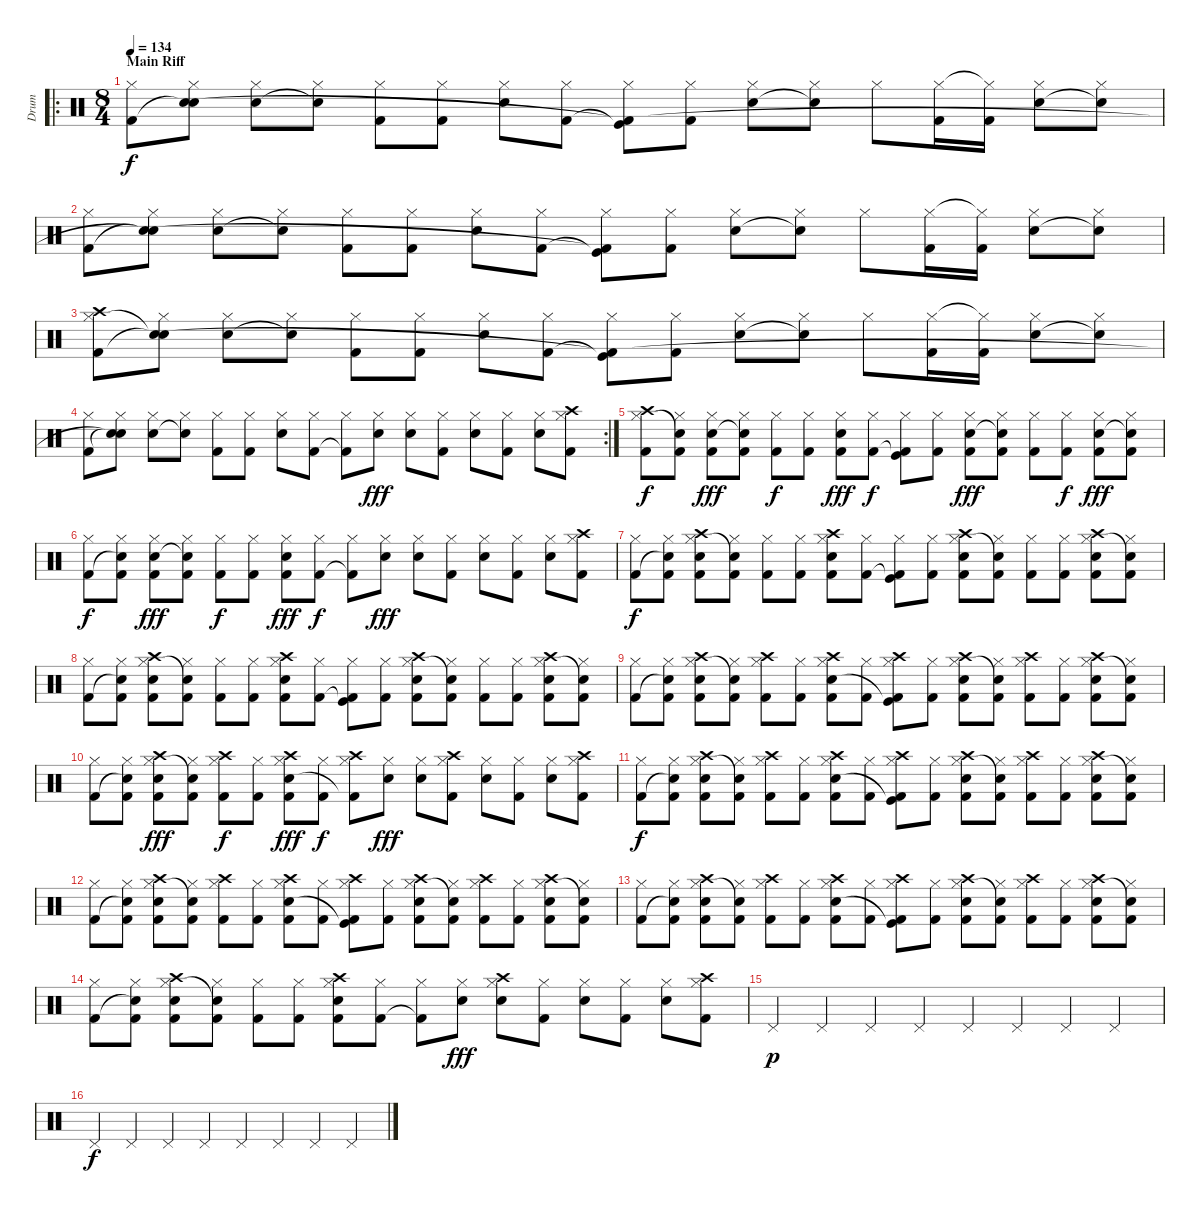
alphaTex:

\track ("Drum" "Drum") {instrument percussion}
\staff {score}
\articulation defaults
\ro
\ts (8 4)
\section ("" "Main Riff")
\tempo 134
\clef neutral
\ks c
("Hi-Hat (closed)" "Kick (hit) 2").8{dy f} ("Hi-Hat (closed)" "Snare (hit)"{t} "Snare (hit)").8 ("Hi-Hat (closed)" "Snare (hit) 2").8 ("Hi-Hat (closed)" "Snare (hit)"{t}).8 ("Hi-Hat (closed)" "Kick (hit) 2").8 ("Hi-Hat (closed)" "Kick (hit) 2").8 ("Hi-Hat (closed)" "Snare (hit) 2").8 ("Hi-Hat (closed)" "Kick (hit) 2").8 ("Hi-Hat (closed)" "Kick (hit)"{t} "Kick (hit) 2"{t}).8 ("Hi-Hat (closed)" "Kick (hit) 2").8 ("Hi-Hat (closed)" "Snare (hit) 2").8 ("Hi-Hat (closed)" "Snare (hit)"{t}).8 "Hi-Hat (closed)".8 ("Hi-Hat (closed)" "Kick (hit) 2").16 ("Hi-Hat (closed)"{t} "Kick (hit) 2").16 ("Hi-Hat (closed)" "Snare (hit) 2").8 ("Hi-Hat (closed)" "Snare (hit)"{t}).8 |
("Hi-Hat (closed)" "Kick (hit) 2").8 ("Hi-Hat (closed)" "Snare (hit)"{t} "Snare (hit)"{t}).8 ("Hi-Hat (closed)" "Snare (hit) 2").8 ("Hi-Hat (closed)" "Snare (hit)"{t}).8 ("Hi-Hat (closed)" "Kick (hit) 2").8 ("Hi-Hat (closed)" "Kick (hit) 2").8 ("Hi-Hat (closed)" "Snare (hit) 2").8 ("Hi-Hat (closed)" "Kick (hit) 2").8 ("Hi-Hat (closed)" "Kick (hit)"{t} "Kick (hit) 2"{t}).8 ("Hi-Hat (closed)" "Kick (hit) 2").8 ("Hi-Hat (closed)" "Snare (hit) 2").8 ("Hi-Hat (closed)" "Snare (hit)"{t}).8 "Hi-Hat (closed)".8 ("Hi-Hat (closed)" "Kick (hit) 2").16 ("Hi-Hat (closed)"{t} "Kick (hit) 2").16 ("Hi-Hat (closed)" "Snare (hit) 2").8 ("Hi-Hat (closed)" "Snare (hit)"{t}).8 |
("Crash high (hit)" "Hi-Hat (closed)" "Kick (hit) 2").8 ("Hi-Hat (closed)" "Snare (hit)"{t} "Snare (hit)"{t}).8 ("Hi-Hat (closed)" "Snare (hit) 2").8 ("Hi-Hat (closed)" "Snare (hit)"{t}).8 ("Hi-Hat (closed)" "Kick (hit) 2").8 ("Hi-Hat (closed)" "Kick (hit) 2").8 ("Hi-Hat (closed)" "Snare (hit) 2").8 ("Hi-Hat (closed)" "Kick (hit) 2").8 ("Hi-Hat (closed)" "Kick (hit)"{t} "Kick (hit) 2"{t}).8 ("Hi-Hat (closed)" "Kick (hit) 2").8 ("Hi-Hat (closed)" "Snare (hit) 2").8 ("Hi-Hat (closed)" "Snare (hit)"{t}).8 "Hi-Hat (closed)".8 ("Hi-Hat (closed)" "Kick (hit) 2").16 ("Hi-Hat (closed)"{t} "Kick (hit) 2").16 ("Hi-Hat (closed)" "Snare (hit) 2").8 ("Hi-Hat (closed)" "Snare (hit)"{t}).8 |
\rc 2
("Hi-Hat (closed)" "Kick (hit) 2").8 ("Hi-Hat (closed)" "Snare (hit)"{t} "Snare (hit)"{t}).8 ("Hi-Hat (closed)" "Snare (hit) 2").8 ("Hi-Hat (closed)" "Snare (hit)"{t}).8 ("Hi-Hat (closed)" "Kick (hit) 2").8 ("Hi-Hat (closed)" "Kick (hit) 2").8 ("Hi-Hat (closed)" "Snare (hit) 2").8 ("Hi-Hat (closed)" "Kick (hit) 2").8 ("Hi-Hat (closed)" "Kick (hit) 2"{t}).8 ("Hi-Hat (closed)" "Snare (hit) 2").8{dy fff} ("Hi-Hat (closed)" "Snare (hit) 2").8 ("Hi-Hat (closed)" "Kick (hit) 2").8 ("Hi-Hat (closed)" "Snare (hit) 2").8 ("Hi-Hat (closed)" "Kick (hit) 2").8 ("Hi-Hat (closed)" "Snare (hit) 2").8 ("Crash high (hit)" "Hi-Hat (closed)" "Kick (hit) 2").8 |
("Crash high (hit)" "Hi-Hat (closed)" "Kick (hit) 2").8{dy f} ("Hi-Hat (closed)" "Snare (hit)"{t} "Kick (hit) 2").8 ("Hi-Hat (closed)" "Snare (hit) 2" "Kick (hit) 2").8{dy fff} ("Hi-Hat (closed)" "Snare (hit)"{t} "Kick (hit) 2").8 ("Hi-Hat (closed)" "Kick (hit) 2").8{dy f} ("Hi-Hat (closed)" "Kick (hit) 2").8 ("Hi-Hat (closed)" "Snare (hit) 2" "Kick (hit) 2").8{dy fff} ("Hi-Hat (closed)" "Kick (hit) 2").8{dy f} ("Hi-Hat (closed)" "Kick (hit)"{t} "Kick (hit) 2").8 ("Hi-Hat (closed)" "Kick (hit) 2").8 ("Hi-Hat (closed)" "Snare (hit) 2" "Kick (hit) 2").8{dy fff} ("Hi-Hat (closed)" "Snare (hit)"{t} "Kick (hit) 2").8 ("Hi-Hat (closed)" "Kick (hit) 2").8 ("Hi-Hat (closed)" "Kick (hit) 2").8{dy f} ("Hi-Hat (closed)" "Snare (hit) 2" "Kick (hit) 2").8{dy fff} ("Hi-Hat (closed)" "Snare (hit)"{t} "Kick (hit) 2").8 |
("Hi-Hat (closed)" "Kick (hit) 2").8{dy f} ("Hi-Hat (closed)" "Snare (hit)"{t} "Kick (hit) 2").8 ("Hi-Hat (closed)" "Snare (hit) 2" "Kick (hit) 2").8{dy fff} ("Hi-Hat (closed)" "Snare (hit)"{t} "Kick (hit) 2").8 ("Hi-Hat (closed)" "Kick (hit) 2").8{dy f} ("Hi-Hat (closed)" "Kick (hit) 2").8 ("Hi-Hat (closed)" "Snare (hit) 2" "Kick (hit) 2").8{dy fff} ("Hi-Hat (closed)" "Kick (hit) 2").8{dy f} ("Hi-Hat (closed)" "Kick (hit) 2"{t}).8 ("Hi-Hat (closed)" "Snare (hit) 2").8{dy fff} ("Hi-Hat (closed)" "Snare (hit) 2").8 ("Hi-Hat (closed)" "Kick (hit) 2").8 ("Hi-Hat (closed)" "Snare (hit) 2").8 ("Hi-Hat (closed)" "Kick (hit) 2").8 ("Hi-Hat (closed)" "Snare (hit) 2").8 ("Crash high (hit)" "Hi-Hat (closed)" "Kick (hit) 2").8 |
("Hi-Hat (closed)" "Kick (hit) 2").8{dy f} ("Hi-Hat (closed)" "Snare (hit)"{t} "Kick (hit) 2").8 ("Crash high (hit)" "Hi-Hat (closed)" "Snare (hit) 2" "Kick (hit) 2").8 ("Hi-Hat (closed)" "Snare (hit)"{t} "Kick (hit) 2").8 ("Hi-Hat (closed)" "Kick (hit) 2").8 ("Hi-Hat (closed)" "Kick (hit) 2").8 ("Crash high (hit)" "Hi-Hat (closed)" "Snare (hit) 2" "Kick (hit) 2").8 ("Hi-Hat (closed)" "Kick (hit) 2").8 ("Hi-Hat (closed)" "Kick (hit)"{t} "Kick (hit) 2").8 ("Hi-Hat (closed)" "Kick (hit) 2").8 ("Crash high (hit)" "Hi-Hat (closed)" "Snare (hit) 2" "Kick (hit) 2").8 ("Hi-Hat (closed)" "Snare (hit)"{t} "Kick (hit) 2").8 ("Hi-Hat (closed)" "Kick (hit) 2").8 ("Hi-Hat (closed)" "Kick (hit) 2").8 ("Crash high (hit)" "Hi-Hat (closed)" "Snare (hit) 2" "Kick (hit) 2").8 ("Hi-Hat (closed)" "Snare (hit)"{t} "Kick (hit) 2").8 |
("Hi-Hat (closed)" "Kick (hit) 2").8 ("Hi-Hat (closed)" "Snare (hit)"{t} "Kick (hit) 2").8 ("Crash high (hit)" "Hi-Hat (closed)" "Snare (hit) 2" "Kick (hit) 2").8 ("Hi-Hat (closed)" "Snare (hit)"{t} "Kick (hit) 2").8 ("Hi-Hat (closed)" "Kick (hit) 2").8 ("Hi-Hat (closed)" "Kick (hit) 2").8 ("Crash high (hit)" "Hi-Hat (closed)" "Snare (hit) 2" "Kick (hit) 2").8 ("Hi-Hat (closed)" "Kick (hit) 2").8 ("Hi-Hat (closed)" "Kick (hit)"{t} "Kick (hit) 2").8 ("Hi-Hat (closed)" "Kick (hit) 2").8 ("Crash high (hit)" "Hi-Hat (closed)" "Snare (hit) 2" "Kick (hit) 2").8 ("Hi-Hat (closed)" "Snare (hit)"{t} "Kick (hit) 2").8 ("Hi-Hat (closed)" "Kick (hit) 2").8 ("Hi-Hat (closed)" "Kick (hit) 2").8 ("Crash high (hit)" "Hi-Hat (closed)" "Snare (hit) 2" "Kick (hit) 2").8 ("Hi-Hat (closed)" "Snare (hit)"{t} "Kick (hit) 2").8 |
("Hi-Hat (closed)" "Kick (hit) 2").8 ("Hi-Hat (closed)" "Snare (hit)"{t} "Kick (hit) 2").8 ("Crash high (hit)" "Hi-Hat (closed)" "Snare (hit) 2" "Kick (hit) 2").8 ("Hi-Hat (closed)" "Snare (hit)"{t} "Kick (hit) 2").8 ("Crash high (hit)" "Hi-Hat (closed)" "Kick (hit) 2").8 ("Hi-Hat (closed)" "Kick (hit) 2").8 ("Crash high (hit)" "Hi-Hat (closed)" "Snare (hit) 2" "Kick (hit) 2").8 ("Hi-Hat (closed)" "Kick (hit) 2").8 ("Crash high (hit)" "Hi-Hat (closed)" "Kick (hit)"{t} "Kick (hit) 2").8 ("Hi-Hat (closed)" "Kick (hit) 2").8 ("Crash high (hit)" "Hi-Hat (closed)" "Snare (hit) 2" "Kick (hit) 2").8 ("Hi-Hat (closed)" "Snare (hit)"{t} "Kick (hit) 2").8 ("Crash high (hit)" "Hi-Hat (closed)" "Kick (hit) 2").8 ("Hi-Hat (closed)" "Kick (hit) 2").8 ("Crash high (hit)" "Hi-Hat (closed)" "Snare (hit) 2" "Kick (hit) 2").8 ("Hi-Hat (closed)" "Snare (hit)"{t} "Kick (hit) 2").8 |
("Hi-Hat (closed)" "Kick (hit) 2").8 ("Hi-Hat (closed)" "Snare (hit)"{t} "Kick (hit) 2").8 ("Crash high (hit)" "Hi-Hat (closed)" "Snare (hit) 2" "Kick (hit) 2").8{dy fff} ("Hi-Hat (closed)" "Snare (hit)"{t} "Kick (hit) 2").8 ("Crash high (hit)" "Hi-Hat (closed)" "Kick (hit) 2").8{dy f} ("Hi-Hat (closed)" "Kick (hit) 2").8 ("Crash high (hit)" "Hi-Hat (closed)" "Snare (hit) 2" "Kick (hit) 2").8{dy fff} ("Hi-Hat (closed)" "Kick (hit) 2").8{dy f} ("Crash high (hit)" "Hi-Hat (closed)" "Kick (hit) 2"{t}).8 ("Hi-Hat (closed)" "Snare (hit) 2").8{dy fff} ("Hi-Hat (closed)" "Snare (hit) 2").8 ("Crash high (hit)" "Hi-Hat (closed)" "Kick (hit) 2").8 ("Hi-Hat (closed)" "Snare (hit) 2").8 ("Hi-Hat (closed)" "Kick (hit) 2").8 ("Hi-Hat (closed)" "Snare (hit) 2").8 ("Crash high (hit)" "Hi-Hat (closed)" "Kick (hit) 2").8 |
("Hi-Hat (closed)" "Kick (hit) 2").8{dy f} ("Hi-Hat (closed)" "Snare (hit)"{t} "Kick (hit) 2").8 ("Crash high (hit)" "Hi-Hat (closed)" "Snare (hit) 2" "Kick (hit) 2").8 ("Hi-Hat (closed)" "Snare (hit)"{t} "Kick (hit) 2").8 ("Crash high (hit)" "Hi-Hat (closed)" "Kick (hit) 2").8 ("Hi-Hat (closed)" "Kick (hit) 2").8 ("Crash high (hit)" "Hi-Hat (closed)" "Snare (hit) 2" "Kick (hit) 2").8 ("Hi-Hat (closed)" "Kick (hit) 2").8 ("Crash high (hit)" "Hi-Hat (closed)" "Kick (hit)"{t} "Kick (hit) 2").8 ("Hi-Hat (closed)" "Kick (hit) 2").8 ("Crash high (hit)" "Hi-Hat (closed)" "Snare (hit) 2" "Kick (hit) 2").8 ("Hi-Hat (closed)" "Snare (hit)"{t} "Kick (hit) 2").8 ("Crash high (hit)" "Hi-Hat (closed)" "Kick (hit) 2").8 ("Hi-Hat (closed)" "Kick (hit) 2").8 ("Crash high (hit)" "Hi-Hat (closed)" "Snare (hit) 2" "Kick (hit) 2").8 ("Hi-Hat (closed)" "Snare (hit)"{t} "Kick (hit) 2").8 |
("Hi-Hat (closed)" "Kick (hit) 2").8 ("Hi-Hat (closed)" "Snare (hit)"{t} "Kick (hit) 2").8 ("Crash high (hit)" "Hi-Hat (closed)" "Snare (hit) 2" "Kick (hit) 2").8 ("Hi-Hat (closed)" "Snare (hit)"{t} "Kick (hit) 2").8 ("Crash high (hit)" "Hi-Hat (closed)" "Kick (hit) 2").8 ("Hi-Hat (closed)" "Kick (hit) 2").8 ("Crash high (hit)" "Hi-Hat (closed)" "Snare (hit) 2" "Kick (hit) 2").8 ("Hi-Hat (closed)" "Kick (hit) 2").8 ("Crash high (hit)" "Hi-Hat (closed)" "Kick (hit)"{t} "Kick (hit) 2").8 ("Hi-Hat (closed)" "Kick (hit) 2").8 ("Crash high (hit)" "Hi-Hat (closed)" "Snare (hit) 2" "Kick (hit) 2").8 ("Hi-Hat (closed)" "Snare (hit)"{t} "Kick (hit) 2").8 ("Crash high (hit)" "Hi-Hat (closed)" "Kick (hit) 2").8 ("Hi-Hat (closed)" "Kick (hit) 2").8 ("Crash high (hit)" "Hi-Hat (closed)" "Snare (hit) 2" "Kick (hit) 2").8 ("Hi-Hat (closed)" "Snare (hit)"{t} "Kick (hit) 2").8 |
("Hi-Hat (closed)" "Kick (hit) 2").8 ("Hi-Hat (closed)" "Snare (hit)"{t} "Kick (hit) 2").8 ("Crash high (hit)" "Hi-Hat (closed)" "Snare (hit) 2" "Kick (hit) 2").8 ("Hi-Hat (closed)" "Snare (hit)"{t} "Kick (hit) 2").8 ("Crash high (hit)" "Hi-Hat (closed)" "Kick (hit) 2").8 ("Hi-Hat (closed)" "Kick (hit) 2").8 ("Crash high (hit)" "Hi-Hat (closed)" "Snare (hit) 2" "Kick (hit) 2").8 ("Hi-Hat (closed)" "Kick (hit) 2").8 ("Crash high (hit)" "Hi-Hat (closed)" "Kick (hit)"{t} "Kick (hit) 2").8 ("Hi-Hat (closed)" "Kick (hit) 2").8 ("Crash high (hit)" "Hi-Hat (closed)" "Snare (hit) 2" "Kick (hit) 2").8 ("Hi-Hat (closed)" "Snare (hit)"{t} "Kick (hit) 2").8 ("Crash high (hit)" "Hi-Hat (closed)" "Kick (hit) 2").8 ("Hi-Hat (closed)" "Kick (hit) 2").8 ("Crash high (hit)" "Hi-Hat (closed)" "Snare (hit) 2" "Kick (hit) 2").8 ("Hi-Hat (closed)" "Snare (hit)"{t} "Kick (hit) 2").8 |
("Hi-Hat (closed)" "Kick (hit) 2").8 ("Hi-Hat (closed)" "Snare (hit)"{t} "Kick (hit) 2").8 ("Crash high (hit)" "Hi-Hat (closed)" "Snare (hit) 2" "Kick (hit) 2").8 ("Hi-Hat (closed)" "Snare (hit)"{t} "Kick (hit) 2").8 ("Hi-Hat (closed)" "Kick (hit) 2").8 ("Hi-Hat (closed)" "Kick (hit) 2").8 ("Crash high (hit)" "Hi-Hat (closed)" "Snare (hit) 2" "Kick (hit) 2").8 ("Hi-Hat (closed)" "Kick (hit) 2").8 ("Hi-Hat (closed)" "Kick (hit) 2"{t}).8 ("Hi-Hat (closed)" "Snare (hit) 2").8{dy fff} ("Crash high (hit)" "Hi-Hat (closed)" "Snare (hit) 2").8 ("Hi-Hat (closed)" "Kick (hit) 2").8 ("Hi-Hat (closed)" "Snare (hit) 2").8 ("Hi-Hat (closed)" "Kick (hit) 2").8 ("Hi-Hat (closed)" "Snare (hit) 2").8 ("Crash high (hit)" "Hi-Hat (closed)" "Kick (hit) 2").8 |
"Pedal Hi-Hat (hit)".4{dy p} "Pedal Hi-Hat (hit)".4 "Pedal Hi-Hat (hit)".4 "Pedal Hi-Hat (hit)".4 "Pedal Hi-Hat (hit)".4 "Pedal Hi-Hat (hit)".4 "Pedal Hi-Hat (hit)".4 "Pedal Hi-Hat (hit)".4 |
"Pedal Hi-Hat (hit)".4{dy f} "Pedal Hi-Hat (hit)".4 "Pedal Hi-Hat (hit)".4 "Pedal Hi-Hat (hit)".4 "Pedal Hi-Hat (hit)".4 "Pedal Hi-Hat (hit)".4 "Pedal Hi-Hat (hit)".4 "Pedal Hi-Hat (hit)".4
